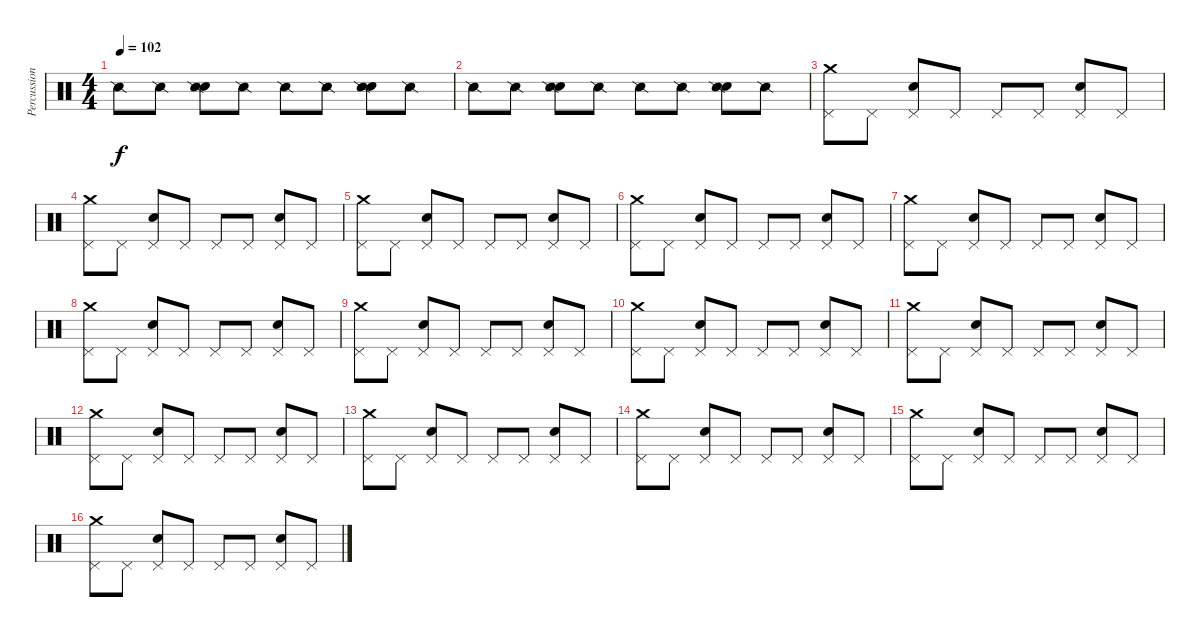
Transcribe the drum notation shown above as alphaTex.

\track ("Percussion" "Percussion") {instrument percussion}
\staff {score}
\articulation defaults
\ts (4 4)
\tempo 102
\clef neutral
\ks c "Snare (side stick) 2".8{dy f} "Snare (side stick) 2".8
("Electric Snare (hit)" "Snare (side stick) 2").8 "Snare (side stick) 2".8 "Snare (side stick) 2".8 "Snare (side stick) 2".8 ("Electric Snare (hit)" "Snare (side stick) 2").8 "Snare (side stick) 2".8 |
"Snare (side stick) 2".8 "Snare (side stick) 2".8 ("Electric Snare (hit)" "Snare (side stick) 2").8 "Snare (side stick) 2".8 "Snare (side stick) 2".8 "Snare (side stick) 2".8 ("Electric Snare (hit)" "Snare (side stick) 2").8 "Snare (side stick) 2".8 |
("Crash medium (hit)" "Pedal Hi-Hat (hit)").8 "Pedal Hi-Hat (hit)".8 ("Electric Snare (hit)" "Pedal Hi-Hat (hit)").8 "Pedal Hi-Hat (hit)".8 "Pedal Hi-Hat (hit)".8 "Pedal Hi-Hat (hit)".8 ("Electric Snare (hit)" "Pedal Hi-Hat (hit)").8 "Pedal Hi-Hat (hit)".8 |
("Crash medium (hit)" "Pedal Hi-Hat (hit)").8 "Pedal Hi-Hat (hit)".8 ("Electric Snare (hit)" "Pedal Hi-Hat (hit)").8 "Pedal Hi-Hat (hit)".8 "Pedal Hi-Hat (hit)".8 "Pedal Hi-Hat (hit)".8 ("Electric Snare (hit)" "Pedal Hi-Hat (hit)").8 "Pedal Hi-Hat (hit)".8 |
("Crash medium (hit)" "Pedal Hi-Hat (hit)").8 "Pedal Hi-Hat (hit)".8 ("Electric Snare (hit)" "Pedal Hi-Hat (hit)").8 "Pedal Hi-Hat (hit)".8 "Pedal Hi-Hat (hit)".8 "Pedal Hi-Hat (hit)".8 ("Electric Snare (hit)" "Pedal Hi-Hat (hit)").8 "Pedal Hi-Hat (hit)".8 |
("Crash medium (hit)" "Pedal Hi-Hat (hit)").8 "Pedal Hi-Hat (hit)".8 ("Electric Snare (hit)" "Pedal Hi-Hat (hit)").8 "Pedal Hi-Hat (hit)".8 "Pedal Hi-Hat (hit)".8 "Pedal Hi-Hat (hit)".8 ("Electric Snare (hit)" "Pedal Hi-Hat (hit)").8 "Pedal Hi-Hat (hit)".8 |
("Crash medium (hit)" "Pedal Hi-Hat (hit)").8 "Pedal Hi-Hat (hit)".8 ("Electric Snare (hit)" "Pedal Hi-Hat (hit)").8 "Pedal Hi-Hat (hit)".8 "Pedal Hi-Hat (hit)".8 "Pedal Hi-Hat (hit)".8 ("Electric Snare (hit)" "Pedal Hi-Hat (hit)").8 "Pedal Hi-Hat (hit)".8 |
("Crash medium (hit)" "Pedal Hi-Hat (hit)").8 "Pedal Hi-Hat (hit)".8 ("Electric Snare (hit)" "Pedal Hi-Hat (hit)").8 "Pedal Hi-Hat (hit)".8 "Pedal Hi-Hat (hit)".8 "Pedal Hi-Hat (hit)".8 ("Electric Snare (hit)" "Pedal Hi-Hat (hit)").8 "Pedal Hi-Hat (hit)".8 |
("Crash medium (hit)" "Pedal Hi-Hat (hit)").8 "Pedal Hi-Hat (hit)".8 ("Electric Snare (hit)" "Pedal Hi-Hat (hit)").8 "Pedal Hi-Hat (hit)".8 "Pedal Hi-Hat (hit)".8 "Pedal Hi-Hat (hit)".8 ("Electric Snare (hit)" "Pedal Hi-Hat (hit)").8 "Pedal Hi-Hat (hit)".8 |
("Crash medium (hit)" "Pedal Hi-Hat (hit)").8 "Pedal Hi-Hat (hit)".8 ("Electric Snare (hit)" "Pedal Hi-Hat (hit)").8 "Pedal Hi-Hat (hit)".8 "Pedal Hi-Hat (hit)".8 "Pedal Hi-Hat (hit)".8 ("Electric Snare (hit)" "Pedal Hi-Hat (hit)").8 "Pedal Hi-Hat (hit)".8 |
("Crash medium (hit)" "Pedal Hi-Hat (hit)").8 "Pedal Hi-Hat (hit)".8 ("Electric Snare (hit)" "Pedal Hi-Hat (hit)").8 "Pedal Hi-Hat (hit)".8 "Pedal Hi-Hat (hit)".8 "Pedal Hi-Hat (hit)".8 ("Electric Snare (hit)" "Pedal Hi-Hat (hit)").8 "Pedal Hi-Hat (hit)".8 |
("Crash medium (hit)" "Pedal Hi-Hat (hit)").8 "Pedal Hi-Hat (hit)".8 ("Electric Snare (hit)" "Pedal Hi-Hat (hit)").8 "Pedal Hi-Hat (hit)".8 "Pedal Hi-Hat (hit)".8 "Pedal Hi-Hat (hit)".8 ("Electric Snare (hit)" "Pedal Hi-Hat (hit)").8 "Pedal Hi-Hat (hit)".8 |
("Crash medium (hit)" "Pedal Hi-Hat (hit)").8 "Pedal Hi-Hat (hit)".8 ("Electric Snare (hit)" "Pedal Hi-Hat (hit)").8 "Pedal Hi-Hat (hit)".8 "Pedal Hi-Hat (hit)".8 "Pedal Hi-Hat (hit)".8 ("Electric Snare (hit)" "Pedal Hi-Hat (hit)").8 "Pedal Hi-Hat (hit)".8 |
("Crash medium (hit)" "Pedal Hi-Hat (hit)").8 "Pedal Hi-Hat (hit)".8 ("Electric Snare (hit)" "Pedal Hi-Hat (hit)").8 "Pedal Hi-Hat (hit)".8 "Pedal Hi-Hat (hit)".8 "Pedal Hi-Hat (hit)".8 ("Electric Snare (hit)" "Pedal Hi-Hat (hit)").8 "Pedal Hi-Hat (hit)".8 |
("Crash medium (hit)" "Pedal Hi-Hat (hit)").8 "Pedal Hi-Hat (hit)".8 ("Electric Snare (hit)" "Pedal Hi-Hat (hit)").8 "Pedal Hi-Hat (hit)".8 "Pedal Hi-Hat (hit)".8 "Pedal Hi-Hat (hit)".8 ("Electric Snare (hit)" "Pedal Hi-Hat (hit)").8 "Pedal Hi-Hat (hit)".8 |
("Crash medium (hit)" "Pedal Hi-Hat (hit)").8 "Pedal Hi-Hat (hit)".8 ("Electric Snare (hit)" "Pedal Hi-Hat (hit)").8 "Pedal Hi-Hat (hit)".8 "Pedal Hi-Hat (hit)".8 "Pedal Hi-Hat (hit)".8 ("Electric Snare (hit)" "Pedal Hi-Hat (hit)").8 "Pedal Hi-Hat (hit)".8
